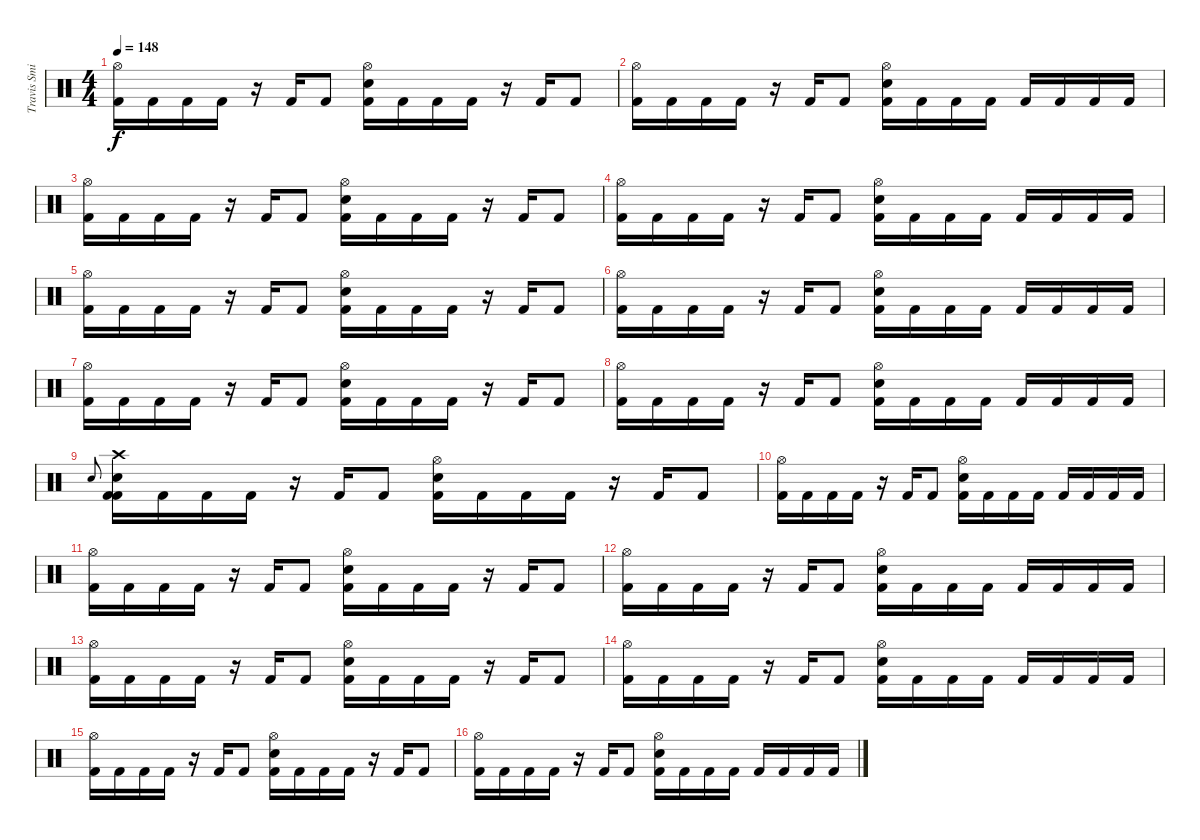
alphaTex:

\track ("Travis Smith" "Travis Smi") {instrument percussion}
\staff {score}
\articulation defaults
\ts (4 4)
\tempo 148
\clef neutral
\ks c
("Hi-Hat (open)" "Kick (hit) 2").16{dy f} "Kick (hit) 2".16 "Kick (hit) 2".16 "Kick (hit) 2".16 r.16 "Kick (hit) 2".16 "Kick (hit) 2".8 ("Hi-Hat (open)" "Electric Snare (hit)" "Kick (hit) 2").16 "Kick (hit) 2".16 "Kick (hit) 2".16 "Kick (hit) 2".16 r.16 "Kick (hit) 2".16 "Kick (hit) 2".8 |
("Hi-Hat (open)" "Kick (hit) 2").16 "Kick (hit) 2".16 "Kick (hit) 2".16 "Kick (hit) 2".16 r.16 "Kick (hit) 2".16 "Kick (hit) 2".8 ("Hi-Hat (open)" "Electric Snare (hit)" "Kick (hit) 2").16 "Kick (hit) 2".16 "Kick (hit) 2".16 "Kick (hit) 2".16 "Kick (hit) 2".16 "Kick (hit) 2".16 "Kick (hit) 2".16 "Kick (hit) 2".16 |
("Hi-Hat (open)" "Kick (hit) 2").16 "Kick (hit) 2".16 "Kick (hit) 2".16 "Kick (hit) 2".16 r.16 "Kick (hit) 2".16 "Kick (hit) 2".8 ("Hi-Hat (open)" "Electric Snare (hit)" "Kick (hit) 2").16 "Kick (hit) 2".16 "Kick (hit) 2".16 "Kick (hit) 2".16 r.16 "Kick (hit) 2".16 "Kick (hit) 2".8 |
("Hi-Hat (open)" "Kick (hit) 2").16 "Kick (hit) 2".16 "Kick (hit) 2".16 "Kick (hit) 2".16 r.16 "Kick (hit) 2".16 "Kick (hit) 2".8 ("Hi-Hat (open)" "Electric Snare (hit)" "Kick (hit) 2").16 "Kick (hit) 2".16 "Kick (hit) 2".16 "Kick (hit) 2".16 "Kick (hit) 2".16 "Kick (hit) 2".16 "Kick (hit) 2".16 "Kick (hit) 2".16 |
("Hi-Hat (open)" "Kick (hit) 2").16 "Kick (hit) 2".16 "Kick (hit) 2".16 "Kick (hit) 2".16 r.16 "Kick (hit) 2".16 "Kick (hit) 2".8 ("Hi-Hat (open)" "Electric Snare (hit)" "Kick (hit) 2").16 "Kick (hit) 2".16 "Kick (hit) 2".16 "Kick (hit) 2".16 r.16 "Kick (hit) 2".16 "Kick (hit) 2".8 |
("Hi-Hat (open)" "Kick (hit) 2").16 "Kick (hit) 2".16 "Kick (hit) 2".16 "Kick (hit) 2".16 r.16 "Kick (hit) 2".16 "Kick (hit) 2".8 ("Hi-Hat (open)" "Electric Snare (hit)" "Kick (hit) 2").16 "Kick (hit) 2".16 "Kick (hit) 2".16 "Kick (hit) 2".16 "Kick (hit) 2".16 "Kick (hit) 2".16 "Kick (hit) 2".16 "Kick (hit) 2".16 |
("Hi-Hat (open)" "Kick (hit) 2").16 "Kick (hit) 2".16 "Kick (hit) 2".16 "Kick (hit) 2".16 r.16 "Kick (hit) 2".16 "Kick (hit) 2".8 ("Hi-Hat (open)" "Electric Snare (hit)" "Kick (hit) 2").16 "Kick (hit) 2".16 "Kick (hit) 2".16 "Kick (hit) 2".16 r.16 "Kick (hit) 2".16 "Kick (hit) 2".8 |
("Hi-Hat (open)" "Kick (hit) 2").16 "Kick (hit) 2".16 "Kick (hit) 2".16 "Kick (hit) 2".16 r.16 "Kick (hit) 2".16 "Kick (hit) 2".8 ("Hi-Hat (open)" "Electric Snare (hit)" "Kick (hit) 2").16 "Kick (hit) 2".16 "Kick (hit) 2".16 "Kick (hit) 2".16 "Kick (hit) 2".16 "Kick (hit) 2".16 "Kick (hit) 2".16 "Kick (hit) 2".16 |
"Snare (hit) 2".8{gr onbeat} ("Crash high (hit)" "Kick (hit) 2" "Snare (hit) 2" "Kick (hit) 2").16 "Kick (hit) 2".16 "Kick (hit) 2".16 "Kick (hit) 2".16 r.16 "Kick (hit) 2".16 "Kick (hit) 2".8 ("Hi-Hat (open)" "Electric Snare (hit)" "Kick (hit) 2").16 "Kick (hit) 2".16 "Kick (hit) 2".16 "Kick (hit) 2".16 r.16 "Kick (hit) 2".16 "Kick (hit) 2".8 |
("Hi-Hat (open)" "Kick (hit) 2").16 "Kick (hit) 2".16 "Kick (hit) 2".16 "Kick (hit) 2".16 r.16 "Kick (hit) 2".16 "Kick (hit) 2".8 ("Hi-Hat (open)" "Electric Snare (hit)" "Kick (hit) 2").16 "Kick (hit) 2".16 "Kick (hit) 2".16 "Kick (hit) 2".16 "Kick (hit) 2".16 "Kick (hit) 2".16 "Kick (hit) 2".16 "Kick (hit) 2".16 |
("Hi-Hat (open)" "Kick (hit) 2").16 "Kick (hit) 2".16 "Kick (hit) 2".16 "Kick (hit) 2".16 r.16 "Kick (hit) 2".16 "Kick (hit) 2".8 ("Hi-Hat (open)" "Electric Snare (hit)" "Kick (hit) 2").16 "Kick (hit) 2".16 "Kick (hit) 2".16 "Kick (hit) 2".16 r.16 "Kick (hit) 2".16 "Kick (hit) 2".8 |
("Hi-Hat (open)" "Kick (hit) 2").16 "Kick (hit) 2".16 "Kick (hit) 2".16 "Kick (hit) 2".16 r.16 "Kick (hit) 2".16 "Kick (hit) 2".8 ("Hi-Hat (open)" "Electric Snare (hit)" "Kick (hit) 2").16 "Kick (hit) 2".16 "Kick (hit) 2".16 "Kick (hit) 2".16 "Kick (hit) 2".16 "Kick (hit) 2".16 "Kick (hit) 2".16 "Kick (hit) 2".16 |
("Hi-Hat (open)" "Kick (hit) 2").16 "Kick (hit) 2".16 "Kick (hit) 2".16 "Kick (hit) 2".16 r.16 "Kick (hit) 2".16 "Kick (hit) 2".8 ("Hi-Hat (open)" "Electric Snare (hit)" "Kick (hit) 2").16 "Kick (hit) 2".16 "Kick (hit) 2".16 "Kick (hit) 2".16 r.16 "Kick (hit) 2".16 "Kick (hit) 2".8 |
("Hi-Hat (open)" "Kick (hit) 2").16 "Kick (hit) 2".16 "Kick (hit) 2".16 "Kick (hit) 2".16 r.16 "Kick (hit) 2".16 "Kick (hit) 2".8 ("Hi-Hat (open)" "Electric Snare (hit)" "Kick (hit) 2").16 "Kick (hit) 2".16 "Kick (hit) 2".16 "Kick (hit) 2".16 "Kick (hit) 2".16 "Kick (hit) 2".16 "Kick (hit) 2".16 "Kick (hit) 2".16 |
("Hi-Hat (open)" "Kick (hit) 2").16 "Kick (hit) 2".16 "Kick (hit) 2".16 "Kick (hit) 2".16 r.16 "Kick (hit) 2".16 "Kick (hit) 2".8 ("Hi-Hat (open)" "Electric Snare (hit)" "Kick (hit) 2").16 "Kick (hit) 2".16 "Kick (hit) 2".16 "Kick (hit) 2".16 r.16 "Kick (hit) 2".16 "Kick (hit) 2".8 |
("Hi-Hat (open)" "Kick (hit) 2").16 "Kick (hit) 2".16 "Kick (hit) 2".16 "Kick (hit) 2".16 r.16 "Kick (hit) 2".16 "Kick (hit) 2".8 ("Hi-Hat (open)" "Electric Snare (hit)" "Kick (hit) 2").16 "Kick (hit) 2".16 "Kick (hit) 2".16 "Kick (hit) 2".16 "Kick (hit) 2".16 "Kick (hit) 2".16 "Kick (hit) 2".16 "Kick (hit) 2".16
